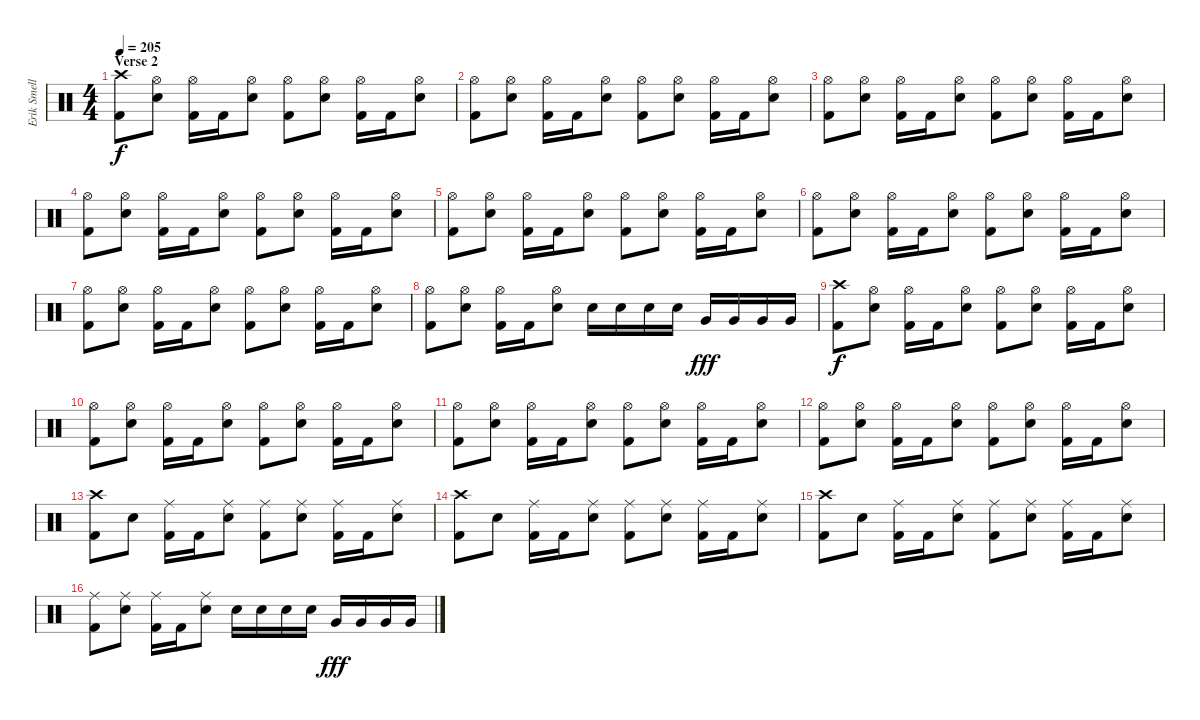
\track ("Erik Smelly" "Erik Smell") {instrument percussion}
\staff {score}
\articulation defaults
\ts (4 4)
\section ("" "Verse 2")
\tempo 205
\clef neutral
\ks c
("Crash high (hit)" "Kick (hit) 2").8{dy f} ("Hi-Hat (open)" "Electric Snare (hit)").8 ("Hi-Hat (open)" "Kick (hit) 2").16 "Kick (hit) 2".16 ("Hi-Hat (open)" "Electric Snare (hit)").8 ("Hi-Hat (open)" "Kick (hit) 2").8 ("Hi-Hat (open)" "Electric Snare (hit)").8 ("Hi-Hat (open)" "Kick (hit) 2").16 "Kick (hit) 2".16 ("Hi-Hat (open)" "Electric Snare (hit)").8 |
("Hi-Hat (open)" "Kick (hit) 2").8 ("Hi-Hat (open)" "Electric Snare (hit)").8 ("Hi-Hat (open)" "Kick (hit) 2").16 "Kick (hit) 2".16 ("Hi-Hat (open)" "Electric Snare (hit)").8 ("Hi-Hat (open)" "Kick (hit) 2").8 ("Hi-Hat (open)" "Electric Snare (hit)").8 ("Hi-Hat (open)" "Kick (hit) 2").16 "Kick (hit) 2".16 ("Hi-Hat (open)" "Electric Snare (hit)").8 |
("Hi-Hat (open)" "Kick (hit) 2").8 ("Hi-Hat (open)" "Electric Snare (hit)").8 ("Hi-Hat (open)" "Kick (hit) 2").16 "Kick (hit) 2".16 ("Hi-Hat (open)" "Electric Snare (hit)").8 ("Hi-Hat (open)" "Kick (hit) 2").8 ("Hi-Hat (open)" "Electric Snare (hit)").8 ("Hi-Hat (open)" "Kick (hit) 2").16 "Kick (hit) 2".16 ("Hi-Hat (open)" "Electric Snare (hit)").8 |
("Hi-Hat (open)" "Kick (hit) 2").8 ("Hi-Hat (open)" "Electric Snare (hit)").8 ("Hi-Hat (open)" "Kick (hit) 2").16 "Kick (hit) 2".16 ("Hi-Hat (open)" "Electric Snare (hit)").8 ("Hi-Hat (open)" "Kick (hit) 2").8 ("Hi-Hat (open)" "Electric Snare (hit)").8 ("Hi-Hat (open)" "Kick (hit) 2").16 "Kick (hit) 2".16 ("Hi-Hat (open)" "Electric Snare (hit)").8 |
("Hi-Hat (open)" "Kick (hit) 2").8 ("Hi-Hat (open)" "Electric Snare (hit)").8 ("Hi-Hat (open)" "Kick (hit) 2").16 "Kick (hit) 2".16 ("Hi-Hat (open)" "Electric Snare (hit)").8 ("Hi-Hat (open)" "Kick (hit) 2").8 ("Hi-Hat (open)" "Electric Snare (hit)").8 ("Hi-Hat (open)" "Kick (hit) 2").16 "Kick (hit) 2".16 ("Hi-Hat (open)" "Electric Snare (hit)").8 |
("Hi-Hat (open)" "Kick (hit) 2").8 ("Hi-Hat (open)" "Electric Snare (hit)").8 ("Hi-Hat (open)" "Kick (hit) 2").16 "Kick (hit) 2".16 ("Hi-Hat (open)" "Electric Snare (hit)").8 ("Hi-Hat (open)" "Kick (hit) 2").8 ("Hi-Hat (open)" "Electric Snare (hit)").8 ("Hi-Hat (open)" "Kick (hit) 2").16 "Kick (hit) 2".16 ("Hi-Hat (open)" "Electric Snare (hit)").8 |
("Hi-Hat (open)" "Kick (hit) 2").8 ("Hi-Hat (open)" "Electric Snare (hit)").8 ("Hi-Hat (open)" "Kick (hit) 2").16 "Kick (hit) 2".16 ("Hi-Hat (open)" "Electric Snare (hit)").8 ("Hi-Hat (open)" "Kick (hit) 2").8 ("Hi-Hat (open)" "Electric Snare (hit)").8 ("Hi-Hat (open)" "Kick (hit) 2").16 "Kick (hit) 2".16 ("Hi-Hat (open)" "Electric Snare (hit)").8 |
("Hi-Hat (open)" "Kick (hit) 2").8 ("Hi-Hat (open)" "Electric Snare (hit)").8 ("Hi-Hat (open)" "Kick (hit) 2").16 "Kick (hit) 2".16 ("Hi-Hat (open)" "Electric Snare (hit)").8 "Electric Snare (hit)".16 "Electric Snare (hit)".16 "Electric Snare (hit)".16 "Electric Snare (hit)".16 "Very Low Tom (hit)".16{dy fff} "Very Low Tom (hit)".16 "Very Low Tom (hit)".16 "Very Low Tom (hit)".16 |
("Crash high (hit)" "Kick (hit) 2").8{dy f} ("Hi-Hat (open)" "Electric Snare (hit)").8 ("Hi-Hat (open)" "Kick (hit) 2").16 "Kick (hit) 2".16 ("Hi-Hat (open)" "Electric Snare (hit)").8 ("Hi-Hat (open)" "Kick (hit) 2").8 ("Hi-Hat (open)" "Electric Snare (hit)").8 ("Hi-Hat (open)" "Kick (hit) 2").16 "Kick (hit) 2".16 ("Hi-Hat (open)" "Electric Snare (hit)").8 |
("Hi-Hat (open)" "Kick (hit) 2").8 ("Hi-Hat (open)" "Electric Snare (hit)").8 ("Hi-Hat (open)" "Kick (hit) 2").16 "Kick (hit) 2".16 ("Hi-Hat (open)" "Electric Snare (hit)").8 ("Hi-Hat (open)" "Kick (hit) 2").8 ("Hi-Hat (open)" "Electric Snare (hit)").8 ("Hi-Hat (open)" "Kick (hit) 2").16 "Kick (hit) 2".16 ("Hi-Hat (open)" "Electric Snare (hit)").8 |
("Hi-Hat (open)" "Kick (hit) 2").8 ("Hi-Hat (open)" "Electric Snare (hit)").8 ("Hi-Hat (open)" "Kick (hit) 2").16 "Kick (hit) 2".16 ("Hi-Hat (open)" "Electric Snare (hit)").8 ("Hi-Hat (open)" "Kick (hit) 2").8 ("Hi-Hat (open)" "Electric Snare (hit)").8 ("Hi-Hat (open)" "Kick (hit) 2").16 "Kick (hit) 2".16 ("Hi-Hat (open)" "Electric Snare (hit)").8 |
("Hi-Hat (open)" "Kick (hit) 2").8 ("Hi-Hat (open)" "Electric Snare (hit)").8 ("Hi-Hat (open)" "Kick (hit) 2").16 "Kick (hit) 2".16 ("Hi-Hat (open)" "Electric Snare (hit)").8 ("Hi-Hat (open)" "Kick (hit) 2").8 ("Hi-Hat (open)" "Electric Snare (hit)").8 ("Hi-Hat (open)" "Kick (hit) 2").16 "Kick (hit) 2".16 ("Hi-Hat (open)" "Electric Snare (hit)").8 |
("Crash high (hit)" "Kick (hit) 2").8 "Electric Snare (hit)".8 ("Ride (middle)" "Kick (hit) 2").16 "Kick (hit) 2".16 ("Ride (middle)" "Electric Snare (hit)").8 ("Ride (middle)" "Kick (hit) 2").8 ("Ride (middle)" "Electric Snare (hit)").8 ("Ride (middle)" "Kick (hit) 2").16 "Kick (hit) 2".16 ("Ride (middle)" "Electric Snare (hit)").8 |
("Crash high (hit)" "Kick (hit) 2").8 "Electric Snare (hit)".8 ("Ride (middle)" "Kick (hit) 2").16 "Kick (hit) 2".16 ("Ride (middle)" "Electric Snare (hit)").8 ("Ride (middle)" "Kick (hit) 2").8 ("Ride (middle)" "Electric Snare (hit)").8 ("Ride (middle)" "Kick (hit) 2").16 "Kick (hit) 2".16 ("Ride (middle)" "Electric Snare (hit)").8 |
("Crash high (hit)" "Kick (hit) 2").8 "Electric Snare (hit)".8 ("Ride (middle)" "Kick (hit) 2").16 "Kick (hit) 2".16 ("Ride (middle)" "Electric Snare (hit)").8 ("Ride (middle)" "Kick (hit) 2").8 ("Ride (middle)" "Electric Snare (hit)").8 ("Ride (middle)" "Kick (hit) 2").16 "Kick (hit) 2".16 ("Ride (middle)" "Electric Snare (hit)").8 |
("Ride (middle)" "Kick (hit) 2").8 ("Ride (middle)" "Electric Snare (hit)").8 ("Ride (middle)" "Kick (hit) 2").16 "Kick (hit) 2".16 ("Ride (middle)" "Electric Snare (hit)").8 "Electric Snare (hit)".16 "Electric Snare (hit)".16 "Electric Snare (hit)".16 "Electric Snare (hit)".16 "Very Low Tom (hit)".16{dy fff} "Very Low Tom (hit)".16 "Very Low Tom (hit)".16 "Very Low Tom (hit)".16
